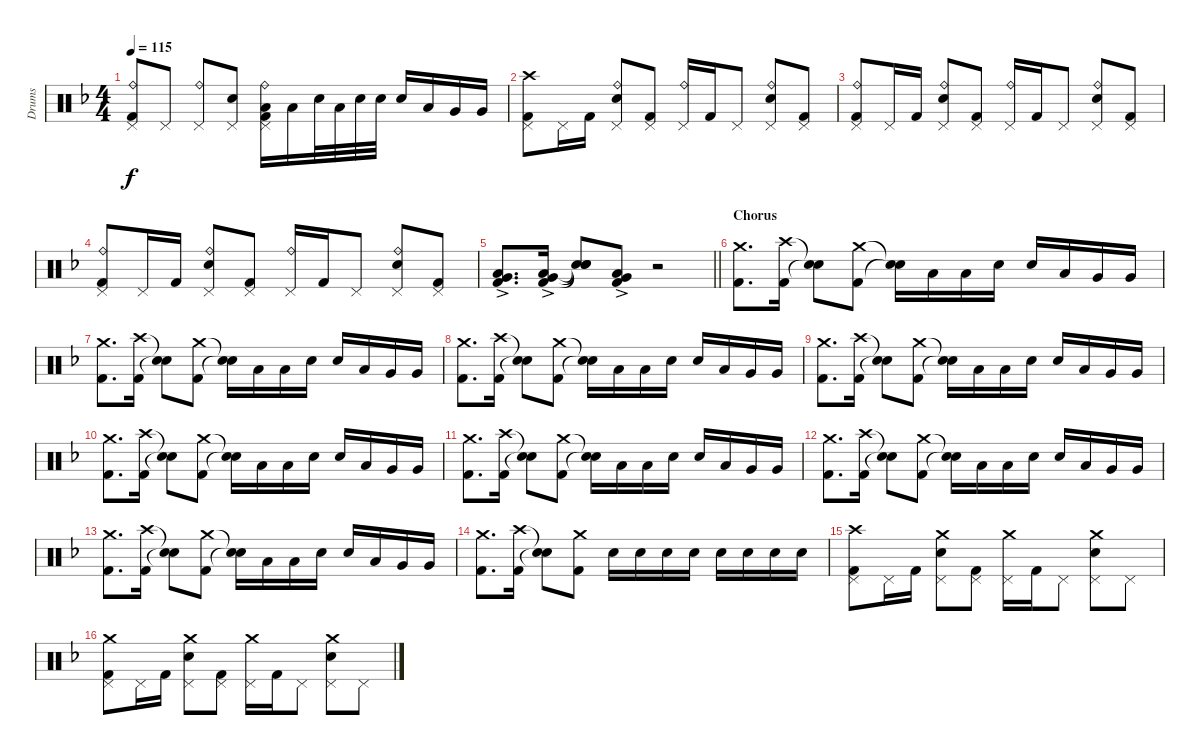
\track ("Drums" "Drums") {instrument percussion}
\staff {score}
\articulation defaults
\ts (4 4)
\tempo 115
\clef neutral
\ks dminor
("Ride (bell)" "Pedal Hi-Hat (hit)" "Kick (hit) 2").8{dy f} "Pedal Hi-Hat (hit)".8 ("Ride (bell)" "Pedal Hi-Hat (hit)").8 ("Electric Snare (hit)" "Pedal Hi-Hat (hit)").8 ("Ride (bell)" "Low Tom (hit)" "Pedal Hi-Hat (hit)" "Kick (hit) 2").16 "Low Tom (hit)".16 "Electric Snare (hit)".32 "Low Tom (hit)".32 "Electric Snare (hit)".32 "Electric Snare (hit)".32 "Electric Snare (hit)".16 "Low Tom (hit)".16 "Very Low Tom (hit)".16 "Very Low Tom (hit)".16 |
("Crash high (hit)" "Pedal Hi-Hat (hit)" "Kick (hit) 2").8 "Pedal Hi-Hat (hit)".16 "Kick (hit) 2".16 ("Ride (bell)" "Electric Snare (hit)" "Pedal Hi-Hat (hit)").8 ("Pedal Hi-Hat (hit)" "Kick (hit) 2").8 ("Ride (bell)" "Pedal Hi-Hat (hit)").16 "Kick (hit) 2".16 "Pedal Hi-Hat (hit)".8 ("Ride (bell)" "Electric Snare (hit)" "Pedal Hi-Hat (hit)").8 ("Pedal Hi-Hat (hit)" "Kick (hit) 2").8 |
("Ride (bell)" "Pedal Hi-Hat (hit)" "Kick (hit) 2").8 "Pedal Hi-Hat (hit)".16 "Kick (hit) 2".16 ("Ride (bell)" "Electric Snare (hit)" "Pedal Hi-Hat (hit)").8 ("Pedal Hi-Hat (hit)" "Kick (hit) 2").8 ("Ride (bell)" "Pedal Hi-Hat (hit)").16 "Kick (hit) 2".16 "Pedal Hi-Hat (hit)".8 ("Ride (bell)" "Electric Snare (hit)" "Pedal Hi-Hat (hit)").8 ("Pedal Hi-Hat (hit)" "Kick (hit) 2").8 |
("Ride (bell)" "Pedal Hi-Hat (hit)" "Kick (hit) 2").8 "Pedal Hi-Hat (hit)".16 "Kick (hit) 2".16 ("Ride (bell)" "Electric Snare (hit)" "Pedal Hi-Hat (hit)").8 ("Pedal Hi-Hat (hit)" "Kick (hit) 2").8 ("Ride (bell)" "Pedal Hi-Hat (hit)").16 "Kick (hit) 2".16 "Pedal Hi-Hat (hit)".8 ("Ride (bell)" "Electric Snare (hit)" "Pedal Hi-Hat (hit)").8 ("Pedal Hi-Hat (hit)" "Kick (hit) 2").8 |
\barLineRight lightlight
("Low Tom (hit)"{ac} "Very Low Tom (hit)"{ac} "Kick (hit) 2"{ac}).8{d} ("Low Tom (hit)"{ac} "Very Low Tom (hit)"{ac} "Kick (hit) 2"{ac}).16 ("Snare (hit)"{t} "Snare (hit)"{t} "Snare (hit)"{t}).8 ("Low Tom (hit)"{ac} "Very Low Tom (hit)"{ac} "Kick (hit) 2"{ac}).8 r.2 |
\section ("" "Chorus")
("Crash medium (hit)" "Kick (hit) 2").8{d} ("Crash high (hit)" "Kick (hit) 2").16 ("Snare (hit)"{t} "Snare (hit)"{t}).8 ("Crash medium (hit)" "Kick (hit) 2").8 ("Snare (hit)"{t} "Snare (hit)"{t}).16 "Low Tom (hit)".16 "Low Tom (hit)".16 "Electric Snare (hit)".16 "Electric Snare (hit)".16 "Low Tom (hit)".16 "Very Low Tom (hit)".16 "Very Low Tom (hit)".16 |
("Crash medium (hit)" "Kick (hit) 2").8{d} ("Crash high (hit)" "Kick (hit) 2").16 ("Snare (hit)"{t} "Snare (hit)"{t}).8 ("Crash medium (hit)" "Kick (hit) 2").8 ("Snare (hit)"{t} "Snare (hit)"{t}).16 "Low Tom (hit)".16 "Low Tom (hit)".16 "Electric Snare (hit)".16 "Electric Snare (hit)".16 "Low Tom (hit)".16 "Very Low Tom (hit)".16 "Very Low Tom (hit)".16 |
("Crash medium (hit)" "Kick (hit) 2").8{d} ("Crash high (hit)" "Kick (hit) 2").16 ("Snare (hit)"{t} "Snare (hit)"{t}).8 ("Crash medium (hit)" "Kick (hit) 2").8 ("Snare (hit)"{t} "Snare (hit)"{t}).16 "Low Tom (hit)".16 "Low Tom (hit)".16 "Electric Snare (hit)".16 "Electric Snare (hit)".16 "Low Tom (hit)".16 "Very Low Tom (hit)".16 "Very Low Tom (hit)".16 |
("Crash medium (hit)" "Kick (hit) 2").8{d} ("Crash high (hit)" "Kick (hit) 2").16 ("Snare (hit)"{t} "Snare (hit)"{t}).8 ("Crash medium (hit)" "Kick (hit) 2").8 ("Snare (hit)"{t} "Snare (hit)"{t}).16 "Low Tom (hit)".16 "Low Tom (hit)".16 "Electric Snare (hit)".16 "Electric Snare (hit)".16 "Low Tom (hit)".16 "Very Low Tom (hit)".16 "Very Low Tom (hit)".16 |
("Crash medium (hit)" "Kick (hit) 2").8{d} ("Crash high (hit)" "Kick (hit) 2").16 ("Snare (hit)"{t} "Snare (hit)"{t}).8 ("Crash medium (hit)" "Kick (hit) 2").8 ("Snare (hit)"{t} "Snare (hit)"{t}).16 "Low Tom (hit)".16 "Low Tom (hit)".16 "Electric Snare (hit)".16 "Electric Snare (hit)".16 "Low Tom (hit)".16 "Very Low Tom (hit)".16 "Very Low Tom (hit)".16 |
("Crash medium (hit)" "Kick (hit) 2").8{d} ("Crash high (hit)" "Kick (hit) 2").16 ("Snare (hit)"{t} "Snare (hit)"{t}).8 ("Crash medium (hit)" "Kick (hit) 2").8 ("Snare (hit)"{t} "Snare (hit)"{t}).16 "Low Tom (hit)".16 "Low Tom (hit)".16 "Electric Snare (hit)".16 "Electric Snare (hit)".16 "Low Tom (hit)".16 "Very Low Tom (hit)".16 "Very Low Tom (hit)".16 |
("Crash medium (hit)" "Kick (hit) 2").8{d} ("Crash high (hit)" "Kick (hit) 2").16 ("Snare (hit)"{t} "Snare (hit)"{t}).8 ("Crash medium (hit)" "Kick (hit) 2").8 ("Snare (hit)"{t} "Snare (hit)"{t}).16 "Low Tom (hit)".16 "Low Tom (hit)".16 "Electric Snare (hit)".16 "Electric Snare (hit)".16 "Low Tom (hit)".16 "Very Low Tom (hit)".16 "Very Low Tom (hit)".16 |
("Crash medium (hit)" "Kick (hit) 2").8{d} ("Crash high (hit)" "Kick (hit) 2").16 ("Snare (hit)"{t} "Snare (hit)"{t}).8 ("Crash medium (hit)" "Kick (hit) 2").8 ("Snare (hit)"{t} "Snare (hit)"{t}).16 "Low Tom (hit)".16 "Low Tom (hit)".16 "Electric Snare (hit)".16 "Electric Snare (hit)".16 "Low Tom (hit)".16 "Very Low Tom (hit)".16 "Very Low Tom (hit)".16 |
("Crash medium (hit)" "Kick (hit) 2").8{d} ("Crash high (hit)" "Kick (hit) 2").16 ("Snare (hit)"{t} "Snare (hit)"{t}).8 ("Crash medium (hit)" "Kick (hit) 2").8 "Electric Snare (hit)".16 "Electric Snare (hit)".16 "Electric Snare (hit)".16 "Electric Snare (hit)".16 "Electric Snare (hit)".16 "Electric Snare (hit)".16 "Electric Snare (hit)".16 "Electric Snare (hit)".16 |
("Crash high (hit)" "Pedal Hi-Hat (hit)" "Kick (hit) 2").8 "Pedal Hi-Hat (hit)".16 "Kick (hit) 2".16 ("Crash medium (hit)" "Electric Snare (hit)" "Pedal Hi-Hat (hit)").8 ("Pedal Hi-Hat (hit)" "Kick (hit) 2").8 ("Crash medium (hit)" "Pedal Hi-Hat (hit)").16 "Kick (hit) 2".16 "Pedal Hi-Hat (hit)".8 ("Crash medium (hit)" "Electric Snare (hit)" "Pedal Hi-Hat (hit)").8 "Pedal Hi-Hat (hit)".8 |
("Crash medium (hit)" "Pedal Hi-Hat (hit)" "Kick (hit) 2").8 "Pedal Hi-Hat (hit)".16 "Kick (hit) 2".16 ("Crash medium (hit)" "Electric Snare (hit)" "Pedal Hi-Hat (hit)").8 ("Pedal Hi-Hat (hit)" "Kick (hit) 2").8 ("Crash medium (hit)" "Pedal Hi-Hat (hit)").16 "Kick (hit) 2".16 "Pedal Hi-Hat (hit)".8 ("Crash medium (hit)" "Electric Snare (hit)" "Pedal Hi-Hat (hit)").8 "Pedal Hi-Hat (hit)".8
